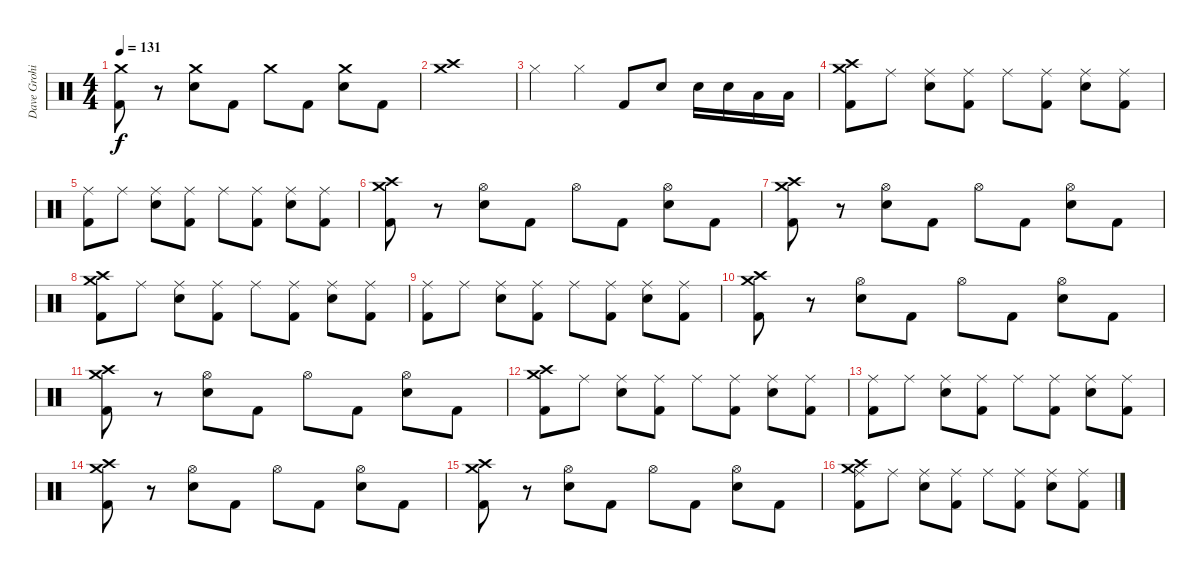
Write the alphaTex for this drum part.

\track ("Dave Grohi" "Dave Grohi") {instrument percussion}
\staff {score}
\articulation defaults
\ts (4 4)
\tempo 131
\clef neutral
\ks c
("Crash medium (hit)" "Kick (hit) 2").8{dy f} r.8 ("Crash medium (hit)" "Snare (hit) 2").8 "Kick (hit) 2".8 "Crash medium (hit)".8 "Kick (hit) 2".8 ("Crash medium (hit)" "Snare (hit) 2").8 "Kick (hit) 2".8 |
("Crash high (hit)" "Crash medium (hit)").1 |
"Hi-Hat (closed)".4 "Hi-Hat (closed)".4 "Kick (hit) 2".8 "Snare (hit) 2".8 "Snare (hit) 2".16 "Snare (hit) 2".16 "Low Tom (hit)".16 "Low Tom (hit)".16 |
("Crash high (hit)" "Crash medium (hit)" "Kick (hit) 2").8 "Ride (middle)".8 ("Ride (middle)" "Snare (hit) 2").8 ("Ride (middle)" "Kick (hit) 2").8 "Ride (middle)".8 ("Ride (middle)" "Kick (hit) 2").8 ("Ride (middle)" "Snare (hit) 2").8 ("Ride (middle)" "Kick (hit) 2").8 |
("Ride (middle)" "Kick (hit) 2").8 "Ride (middle)".8 ("Ride (middle)" "Snare (hit) 2").8 ("Ride (middle)" "Kick (hit) 2").8 "Ride (middle)".8 ("Ride (middle)" "Kick (hit) 2").8 ("Ride (middle)" "Snare (hit) 2").8 ("Ride (middle)" "Kick (hit) 2").8 |
("Crash high (hit)" "Crash medium (hit)" "Kick (hit) 2").8 r.8 ("Hi-Hat (open)" "Snare (hit) 2").8 "Kick (hit) 2".8 "Hi-Hat (open)".8 "Kick (hit) 2".8 ("Hi-Hat (open)" "Snare (hit) 2").8 "Kick (hit) 2".8 |
("Crash high (hit)" "Crash medium (hit)" "Kick (hit) 2").8 r.8 ("Hi-Hat (open)" "Snare (hit) 2").8 "Kick (hit) 2".8 "Hi-Hat (open)".8 "Kick (hit) 2".8 ("Hi-Hat (open)" "Snare (hit) 2").8 "Kick (hit) 2".8 |
("Crash high (hit)" "Crash medium (hit)" "Kick (hit) 2").8 "Ride (middle)".8 ("Ride (middle)" "Snare (hit) 2").8 ("Ride (middle)" "Kick (hit) 2").8 "Ride (middle)".8 ("Ride (middle)" "Kick (hit) 2").8 ("Ride (middle)" "Snare (hit) 2").8 ("Ride (middle)" "Kick (hit) 2").8 |
("Ride (middle)" "Kick (hit) 2").8 "Ride (middle)".8 ("Ride (middle)" "Snare (hit) 2").8 ("Ride (middle)" "Kick (hit) 2").8 "Ride (middle)".8 ("Ride (middle)" "Kick (hit) 2").8 ("Ride (middle)" "Snare (hit) 2").8 ("Ride (middle)" "Kick (hit) 2").8 |
("Crash high (hit)" "Crash medium (hit)" "Kick (hit) 2").8 r.8 ("Hi-Hat (open)" "Snare (hit) 2").8 "Kick (hit) 2".8 "Hi-Hat (open)".8 "Kick (hit) 2".8 ("Hi-Hat (open)" "Snare (hit) 2").8 "Kick (hit) 2".8 |
("Crash high (hit)" "Crash medium (hit)" "Kick (hit) 2").8 r.8 ("Hi-Hat (open)" "Snare (hit) 2").8 "Kick (hit) 2".8 "Hi-Hat (open)".8 "Kick (hit) 2".8 ("Hi-Hat (open)" "Snare (hit) 2").8 "Kick (hit) 2".8 |
("Crash high (hit)" "Crash medium (hit)" "Kick (hit) 2").8 "Ride (middle)".8 ("Ride (middle)" "Snare (hit) 2").8 ("Ride (middle)" "Kick (hit) 2").8 "Ride (middle)".8 ("Ride (middle)" "Kick (hit) 2").8 ("Ride (middle)" "Snare (hit) 2").8 ("Ride (middle)" "Kick (hit) 2").8 |
("Ride (middle)" "Kick (hit) 2").8 "Ride (middle)".8 ("Ride (middle)" "Snare (hit) 2").8 ("Ride (middle)" "Kick (hit) 2").8 "Ride (middle)".8 ("Ride (middle)" "Kick (hit) 2").8 ("Ride (middle)" "Snare (hit) 2").8 ("Ride (middle)" "Kick (hit) 2").8 |
("Crash high (hit)" "Crash medium (hit)" "Kick (hit) 2").8 r.8 ("Hi-Hat (open)" "Snare (hit) 2").8 "Kick (hit) 2".8 "Hi-Hat (open)".8 "Kick (hit) 2".8 ("Hi-Hat (open)" "Snare (hit) 2").8 "Kick (hit) 2".8 |
("Crash high (hit)" "Crash medium (hit)" "Kick (hit) 2").8 r.8 ("Hi-Hat (open)" "Snare (hit) 2").8 "Kick (hit) 2".8 "Hi-Hat (open)".8 "Kick (hit) 2".8 ("Hi-Hat (open)" "Snare (hit) 2").8 "Kick (hit) 2".8 |
("Crash high (hit)" "Crash medium (hit)" "Ride (middle)" "Kick (hit) 2").8 "Ride (middle)".8 ("Ride (middle)" "Snare (hit) 2").8 ("Ride (middle)" "Kick (hit) 2").8 "Ride (middle)".8 ("Ride (middle)" "Kick (hit) 2").8 ("Ride (middle)" "Snare (hit) 2").8 ("Ride (middle)" "Kick (hit) 2").8
